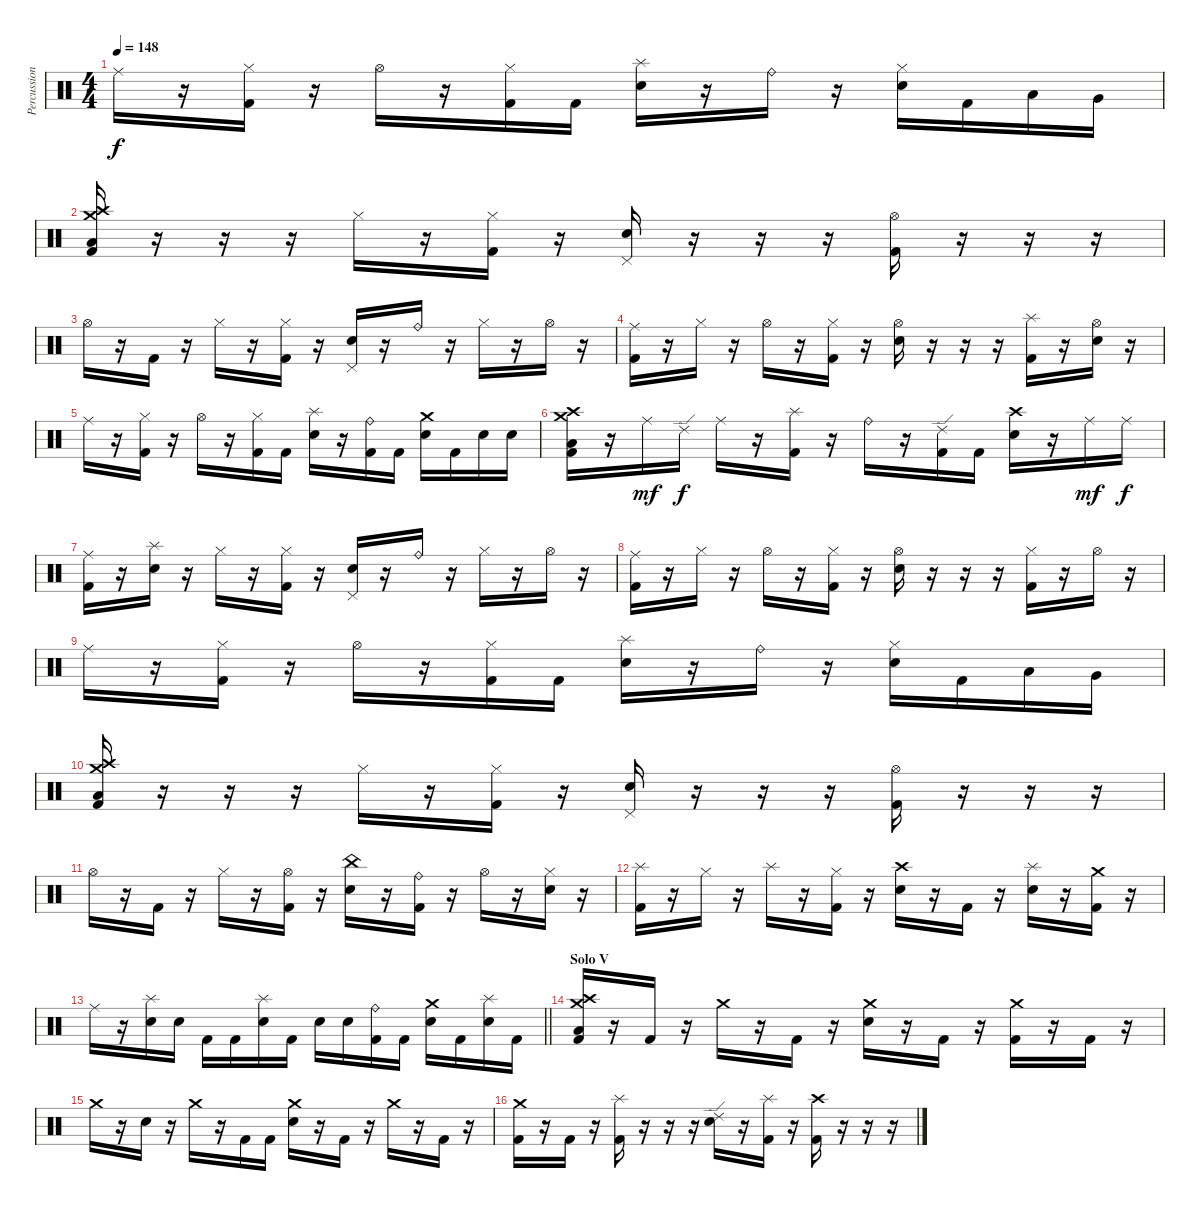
\track ("Percussion" "Percussion") {instrument percussion}
\staff {score}
\articulation defaults
\ts (4 4)
\tempo 148
\clef neutral
\ks c "Ride (middle)".16{dy f}
r.16 ("Hi-Hat (closed)" "Kick (hit) 2").16 r.16 "Hi-Hat (open)".16 r.16 ("Hi-Hat (closed)" "Kick (hit) 2").16 "Kick (hit) 2".16 ("Splash (hit)" "Electric Snare (hit)").16 r.16 "Ride (bell)".16 r.16 ("Hi-Hat (closed)" "Electric Snare (hit)").16 "Kick (hit) 2".16 "Low Tom (hit)".16 "Very Low Tom (hit)".16 |
("Crash high (hit)" "Crash medium (hit)" "Low Floor Tom (hit)" "Kick (hit) 2").16 r.16 r.16 r.16 "Hi-Hat (closed)".16 r.16 ("Hi-Hat (closed)" "Kick (hit) 2").16 r.16 ("Pedal Hi-Hat (hit)" "Electric Snare (hit)").16 r.16 r.16 r.16 ("Hi-Hat (open)" "Kick (hit) 2").16 r.16 r.16 r.16 |
"Hi-Hat (open)".16 r.16 "Kick (hit) 2".16 r.16 "Hi-Hat (closed)".16 r.16 ("Hi-Hat (closed)" "Kick (hit) 2").16 r.16 ("Pedal Hi-Hat (hit)" "Electric Snare (hit)").16 r.16 "Ride (bell)".16 r.16 "Hi-Hat (closed)".16 r.16 "Hi-Hat (open)".16 r.16 |
("Ride (middle)" "Kick (hit) 2").16 r.16 "Hi-Hat (closed)".16 r.16 "Hi-Hat (open)".16 r.16 ("Hi-Hat (closed)" "Kick (hit) 2").16 r.16 ("Hi-Hat (open)" "Electric Snare (hit)").16 r.16 r.16 r.16 ("Splash (hit)" "Kick (hit) 2").16 r.16 ("Hi-Hat (open)" "Electric Snare (hit)").16 r.16 |
"Ride (middle)".16 r.16 ("Hi-Hat (closed)" "Kick (hit) 2").16 r.16 "Hi-Hat (open)".16 r.16 ("Hi-Hat (closed)" "Kick (hit) 2").16 "Kick (hit) 2".16 ("Splash (hit)" "Electric Snare (hit)").16 r.16 ("Ride (bell)" "Kick (hit) 2").16 "Kick (hit) 2".16 ("Crash medium (hit)" "Electric Snare (hit)").16 "Kick (hit) 2".16 "Electric Snare (hit)".16 "Electric Snare (hit)".16 |
("Crash high (hit)" "Crash medium (hit)" "Low Floor Tom (hit)" "Kick (hit) 2").16 r.16 "Ride (middle)".16{dy mf} "Ride (edge) 2".16{dy f} "Ride (middle)".16 r.16 ("Splash (hit)" "Kick (hit) 2").16 r.16 "Ride (bell)".16 r.16 ("Ride (edge) 2" "Kick (hit) 2").16 "Kick (hit) 2".16 ("Crash high (hit)" "Electric Snare (hit)").16 r.16 "Ride (middle)".16{dy mf} "Ride (middle)".16{dy f} |
("Ride (middle)" "Kick (hit) 2").16 r.16 ("Splash (hit)" "Electric Snare (hit)").16 r.16 "Hi-Hat (closed)".16 r.16 ("Hi-Hat (closed)" "Kick (hit) 2").16 r.16 ("Pedal Hi-Hat (hit)" "Electric Snare (hit)").16 r.16 "Ride (bell)".16 r.16 "Hi-Hat (closed)".16 r.16 "Hi-Hat (open)".16 r.16 |
("Ride (middle)" "Kick (hit) 2").16 r.16 "Hi-Hat (closed)".16 r.16 "Hi-Hat (open)".16 r.16 ("Hi-Hat (closed)" "Kick (hit) 2").16 r.16 ("Hi-Hat (open)" "Electric Snare (hit)").16 r.16 r.16 r.16 ("Hi-Hat (closed)" "Kick (hit) 2").16 r.16 "Hi-Hat (open)".16 r.16 |
"Ride (middle)".16 r.16 ("Hi-Hat (closed)" "Kick (hit) 2").16 r.16 "Hi-Hat (open)".16 r.16 ("Hi-Hat (closed)" "Kick (hit) 2").16 "Kick (hit) 2".16 ("Splash (hit)" "Electric Snare (hit)").16 r.16 "Ride (bell)".16 r.16 ("Hi-Hat (closed)" "Electric Snare (hit)").16 "Kick (hit) 2".16 "Low Tom (hit)".16 "Very Low Tom (hit)".16 |
("Crash high (hit)" "Crash medium (hit)" "Low Floor Tom (hit)" "Kick (hit) 2").16 r.16 r.16 r.16 "Hi-Hat (closed)".16 r.16 ("Hi-Hat (closed)" "Kick (hit) 2").16 r.16 ("Pedal Hi-Hat (hit)" "Electric Snare (hit)").16 r.16 r.16 r.16 ("Hi-Hat (open)" "Kick (hit) 2").16 r.16 r.16 r.16 |
"Hi-Hat (open)".16 r.16 "Kick (hit) 2".16 r.16 "Hi-Hat (closed)".16 r.16 ("Hi-Hat (open)" "Kick (hit) 2").16 r.16 ("China (hit)" "Electric Snare (hit)").16 r.16 ("Ride (bell)" "Kick (hit) 2").16 r.16 "Hi-Hat (open)".16 r.16 ("Hi-Hat (closed)" "Electric Snare (hit)").16 r.16 |
("Splash (hit)" "Kick (hit) 2").16 r.16 "Hi-Hat (closed)".16 r.16 "Splash (hit)".16 r.16 ("Hi-Hat (closed)" "Kick (hit) 2").16 r.16 ("Crash high (hit)" "Electric Snare (hit)").16 r.16 "Kick (hit) 2".16 r.16 ("Splash (hit)" "Electric Snare (hit)").16 r.16 ("Crash medium (hit)" "Kick (hit) 2").16 r.16 |
\barLineRight lightlight "Ride (middle)".16
r.16 ("Splash (hit)" "Electric Snare (hit)").16 "Electric Snare (hit)".16 "Kick (hit) 2".16 "Kick (hit) 2".16 ("Splash (hit)" "Electric Snare (hit)").16 "Kick (hit) 2".16 "Electric Snare (hit)".16 "Electric Snare (hit)".16 ("Ride (bell)" "Kick (hit) 2").16 "Kick (hit) 2".16 ("Crash medium (hit)" "Electric Snare (hit)").16 "Kick (hit) 2".16 ("Splash (hit)" "Electric Snare (hit)").16 "Kick (hit) 2".16 |
\section ("" "Solo V")
("Crash high (hit)" "Crash medium (hit)" "Low Floor Tom (hit)" "Kick (hit) 2").16 r.16 "Kick (hit) 2".16 r.16 "Crash medium (hit)".16 r.16 "Kick (hit) 2".16 r.16 ("Crash medium (hit)" "Electric Snare (hit)").16 r.16 "Kick (hit) 2".16 r.16 ("Crash medium (hit)" "Kick (hit) 2").16 r.16 "Kick (hit) 2".16 r.16 |
"Crash medium (hit)".16 r.16 "Electric Snare (hit)".16 r.16 "Crash medium (hit)".16 r.16 "Kick (hit) 2".16 "Kick (hit) 2".16 ("Crash medium (hit)" "Electric Snare (hit)").16 r.16 "Kick (hit) 2".16 r.16 "Crash medium (hit)".16 r.16 "Kick (hit) 2".16 r.16 |
("Crash medium (hit)" "Kick (hit) 2").16 r.16 "Kick (hit) 2".16 r.16 ("Splash (hit)" "Kick (hit) 2").16 r.16 r.16 r.16 ("Ride (edge) 2" "Electric Snare (hit)").16 r.16 ("Splash (hit)" "Kick (hit) 2").16 r.16 ("Crash high (hit)" "Kick (hit) 2").16 r.16 r.16 r.16
